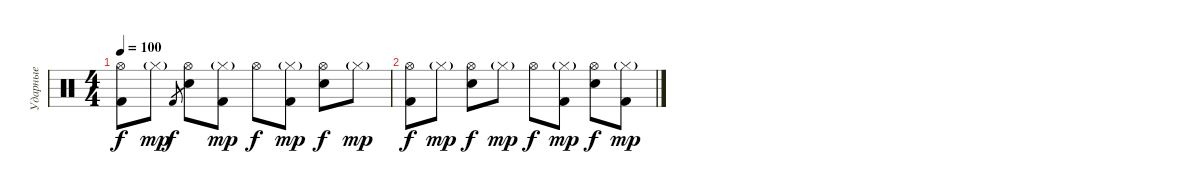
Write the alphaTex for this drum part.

\track ("Ударные" "Ударные") {instrument percussion}
\staff {score}
\articulation defaults
\ts (4 4)
\tempo 100
\clef neutral
\ks c
("Hi-Hat (open)" "Kick (hit) 2").8{dy f} "Hi-Hat (closed)"{g}.8{dy mp} "Kick (hit) 2".8{gr dy f} ("Hi-Hat (open)" "Snare (hit) 2").8 ("Hi-Hat (closed)"{g} "Kick (hit) 2").8{dy mp} "Hi-Hat (open)".8{dy f} ("Hi-Hat (closed)"{g} "Kick (hit) 2").8{dy mp} ("Hi-Hat (open)" "Snare (hit) 2").8{dy f} "Hi-Hat (closed)"{g}.8{dy mp} |
("Hi-Hat (open)" "Kick (hit) 2").8{dy f} "Hi-Hat (closed)"{g}.8{dy mp} ("Hi-Hat (open)" "Snare (hit) 2").8{dy f} "Hi-Hat (closed)"{g}.8{dy mp} "Hi-Hat (open)".8{dy f} ("Hi-Hat (closed)"{g} "Kick (hit) 2").8{dy mp} ("Hi-Hat (open)" "Snare (hit) 2").8{dy f} ("Hi-Hat (closed)"{g} "Kick (hit) 2").8{dy mp}
